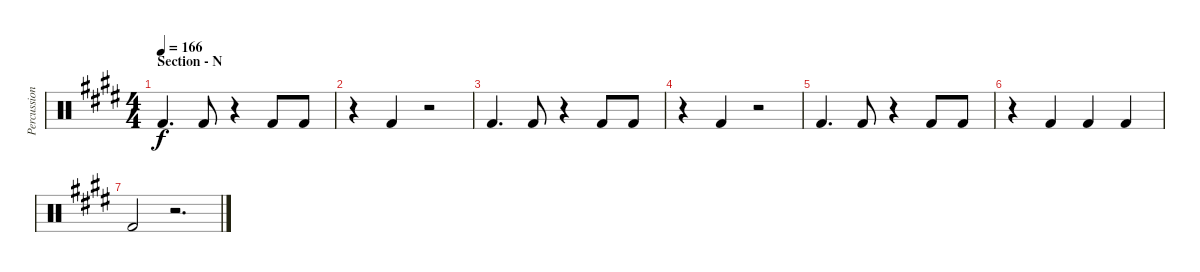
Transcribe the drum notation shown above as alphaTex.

\track ("Percussion - Other Again" "Percussion") {instrument percussion}
\staff {score}
\articulation defaults
\ts (4 4)
\section ("" "Section - N")
\tempo 166
\clef neutral
\ks e "Kick (hit) 2".4{d dy f} "Kick (hit) 2".8
r.4 "Kick (hit) 2".8 "Kick (hit) 2".8 |
r.4 "Kick (hit) 2".4 r.2 |
"Kick (hit) 2".4{d} "Kick (hit) 2".8 r.4 "Kick (hit) 2".8 "Kick (hit) 2".8 |
r.4 "Kick (hit) 2".4 r.2 |
"Kick (hit) 2".4{d} "Kick (hit) 2".8 r.4 "Kick (hit) 2".8 "Kick (hit) 2".8 |
r.4 "Kick (hit) 2".4 "Kick (hit) 2".4 "Kick (hit) 2".4 |
"Kick (hit) 2".2 r.2{d}
